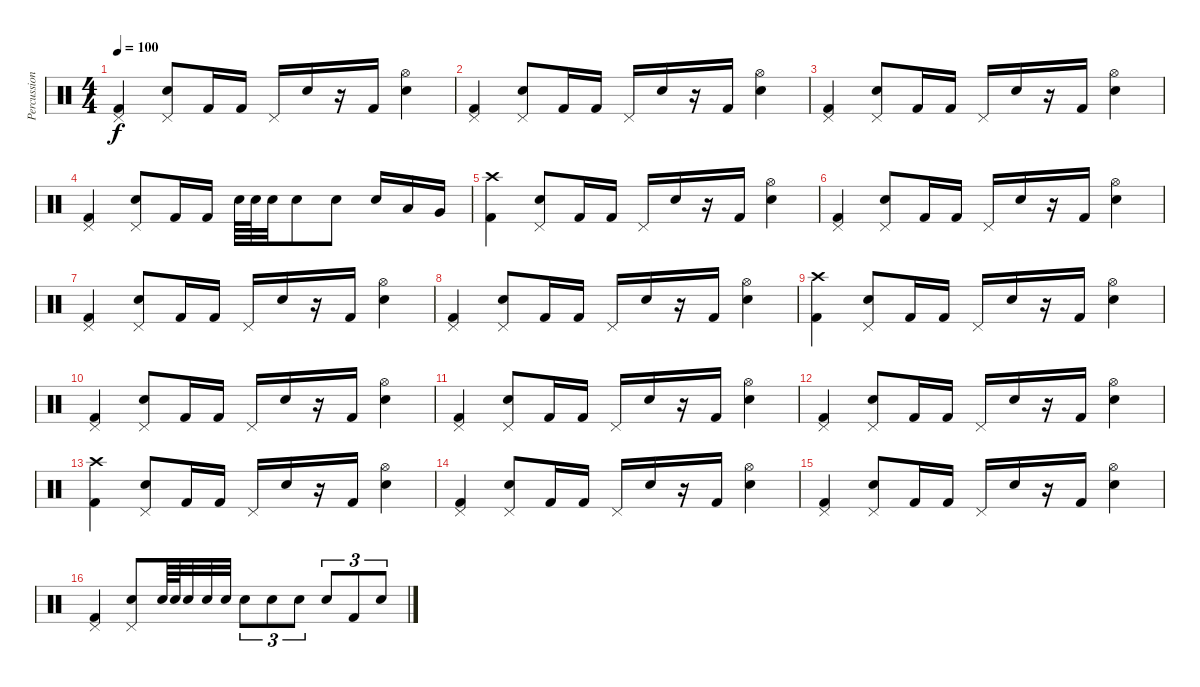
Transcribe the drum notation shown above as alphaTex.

\track ("Percussion" "Percussion") {instrument percussion}
\staff {score}
\articulation defaults
\ts (4 4)
\tempo 100
\clef neutral
\ks c
("Pedal Hi-Hat (hit)" "Kick (hit) 2").4{dy f} ("Pedal Hi-Hat (hit)" "Electric Snare (hit)").8 "Kick (hit) 2".16 "Kick (hit) 2".16 "Pedal Hi-Hat (hit)".16 "Electric Snare (hit)".16 r.16 "Kick (hit) 2".16 ("Hi-Hat (open)" "Electric Snare (hit)").4 |
("Pedal Hi-Hat (hit)" "Kick (hit) 2").4 ("Pedal Hi-Hat (hit)" "Electric Snare (hit)").8 "Kick (hit) 2".16 "Kick (hit) 2".16 "Pedal Hi-Hat (hit)".16 "Electric Snare (hit)".16 r.16 "Kick (hit) 2".16 ("Hi-Hat (open)" "Electric Snare (hit)").4 |
("Pedal Hi-Hat (hit)" "Kick (hit) 2").4 ("Pedal Hi-Hat (hit)" "Electric Snare (hit)").8 "Kick (hit) 2".16 "Kick (hit) 2".16 "Pedal Hi-Hat (hit)".16 "Electric Snare (hit)".16 r.16 "Kick (hit) 2".16 ("Hi-Hat (open)" "Electric Snare (hit)").4 |
("Pedal Hi-Hat (hit)" "Kick (hit) 2").4 ("Pedal Hi-Hat (hit)" "Electric Snare (hit)").8 "Kick (hit) 2".16 "Kick (hit) 2".16 "Electric Snare (hit)".64 "Electric Snare (hit)".64 "Electric Snare (hit)".32 "Electric Snare (hit)".8 "Electric Snare (hit)".8 "Electric Snare (hit)".16 "Low Tom (hit)".16 "Very Low Tom (hit)".16 |
("Crash high (hit)" "Kick (hit) 2").4 ("Pedal Hi-Hat (hit)" "Electric Snare (hit)").8 "Kick (hit) 2".16 "Kick (hit) 2".16 "Pedal Hi-Hat (hit)".16 "Electric Snare (hit)".16 r.16 "Kick (hit) 2".16 ("Hi-Hat (open)" "Electric Snare (hit)").4 |
("Pedal Hi-Hat (hit)" "Kick (hit) 2").4 ("Pedal Hi-Hat (hit)" "Electric Snare (hit)").8 "Kick (hit) 2".16 "Kick (hit) 2".16 "Pedal Hi-Hat (hit)".16 "Electric Snare (hit)".16 r.16 "Kick (hit) 2".16 ("Hi-Hat (open)" "Electric Snare (hit)").4 |
("Pedal Hi-Hat (hit)" "Kick (hit) 2").4 ("Pedal Hi-Hat (hit)" "Electric Snare (hit)").8 "Kick (hit) 2".16 "Kick (hit) 2".16 "Pedal Hi-Hat (hit)".16 "Electric Snare (hit)".16 r.16 "Kick (hit) 2".16 ("Hi-Hat (open)" "Electric Snare (hit)").4 |
("Pedal Hi-Hat (hit)" "Kick (hit) 2").4 ("Pedal Hi-Hat (hit)" "Electric Snare (hit)").8 "Kick (hit) 2".16 "Kick (hit) 2".16 "Pedal Hi-Hat (hit)".16 "Electric Snare (hit)".16 r.16 "Kick (hit) 2".16 ("Hi-Hat (open)" "Electric Snare (hit)").4 |
("Crash high (hit)" "Kick (hit) 2").4 ("Pedal Hi-Hat (hit)" "Electric Snare (hit)").8 "Kick (hit) 2".16 "Kick (hit) 2".16 "Pedal Hi-Hat (hit)".16 "Electric Snare (hit)".16 r.16 "Kick (hit) 2".16 ("Hi-Hat (open)" "Electric Snare (hit)").4 |
("Pedal Hi-Hat (hit)" "Kick (hit) 2").4 ("Pedal Hi-Hat (hit)" "Electric Snare (hit)").8 "Kick (hit) 2".16 "Kick (hit) 2".16 "Pedal Hi-Hat (hit)".16 "Electric Snare (hit)".16 r.16 "Kick (hit) 2".16 ("Hi-Hat (open)" "Electric Snare (hit)").4 |
("Pedal Hi-Hat (hit)" "Kick (hit) 2").4 ("Pedal Hi-Hat (hit)" "Electric Snare (hit)").8 "Kick (hit) 2".16 "Kick (hit) 2".16 "Pedal Hi-Hat (hit)".16 "Electric Snare (hit)".16 r.16 "Kick (hit) 2".16 ("Hi-Hat (open)" "Electric Snare (hit)").4 |
("Pedal Hi-Hat (hit)" "Kick (hit) 2").4 ("Pedal Hi-Hat (hit)" "Electric Snare (hit)").8 "Kick (hit) 2".16 "Kick (hit) 2".16 "Pedal Hi-Hat (hit)".16 "Electric Snare (hit)".16 r.16 "Kick (hit) 2".16 ("Hi-Hat (open)" "Electric Snare (hit)").4 |
("Crash high (hit)" "Kick (hit) 2").4 ("Pedal Hi-Hat (hit)" "Electric Snare (hit)").8 "Kick (hit) 2".16 "Kick (hit) 2".16 "Pedal Hi-Hat (hit)".16 "Electric Snare (hit)".16 r.16 "Kick (hit) 2".16 ("Hi-Hat (open)" "Electric Snare (hit)").4 |
("Pedal Hi-Hat (hit)" "Kick (hit) 2").4 ("Pedal Hi-Hat (hit)" "Electric Snare (hit)").8 "Kick (hit) 2".16 "Kick (hit) 2".16 "Pedal Hi-Hat (hit)".16 "Electric Snare (hit)".16 r.16 "Kick (hit) 2".16 ("Hi-Hat (open)" "Electric Snare (hit)").4 |
("Pedal Hi-Hat (hit)" "Kick (hit) 2").4 ("Pedal Hi-Hat (hit)" "Electric Snare (hit)").8 "Kick (hit) 2".16 "Kick (hit) 2".16 "Pedal Hi-Hat (hit)".16 "Electric Snare (hit)".16 r.16 "Kick (hit) 2".16 ("Hi-Hat (open)" "Electric Snare (hit)").4 |
("Pedal Hi-Hat (hit)" "Kick (hit) 2").4 ("Pedal Hi-Hat (hit)" "Electric Snare (hit)").8 "Electric Snare (hit)".64 "Electric Snare (hit)".64 "Electric Snare (hit)".32 "Electric Snare (hit)".32 "Electric Snare (hit)".32 "Electric Snare (hit)".8{tu (3 2)} "Electric Snare (hit)".8{tu (3 2)} "Electric Snare (hit)".8{tu (3 2)} "Electric Snare (hit)".8{tu (3 2)} "Kick (hit) 2".8{tu (3 2)} "Electric Snare (hit)".8{tu (3 2)}
